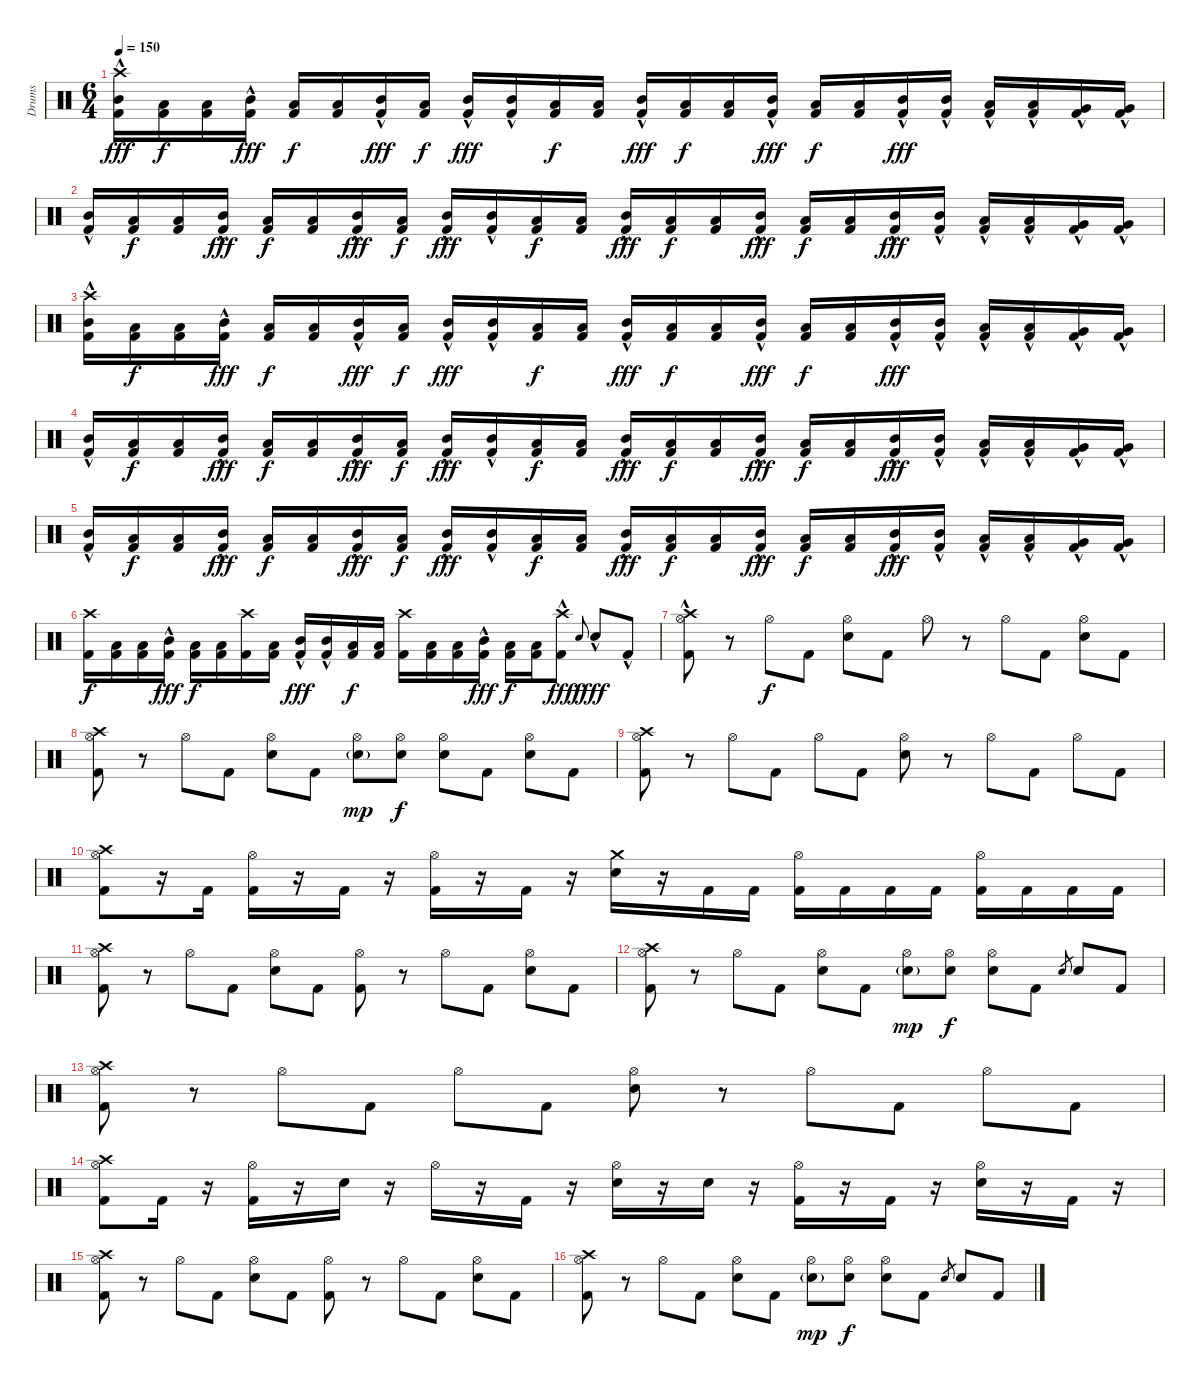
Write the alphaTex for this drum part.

\track ("Drums" "Drums") {instrument percussion}
\staff {score}
\articulation defaults
\ts (6 4)
\tempo 150
\clef neutral
\ks c
("Crash high (hit)" "Mid Tom (hit)"{hac} "Kick (hit) 2").16{dy fff} ("Low Floor Tom (hit)" "Kick (hit) 2").16{dy f} ("Low Floor Tom (hit)" "Kick (hit) 2").16 ("Mid Tom (hit)"{hac} "Kick (hit) 2").16{dy fff} ("Low Floor Tom (hit)" "Kick (hit) 2").16{dy f} ("Low Floor Tom (hit)" "Kick (hit) 2").16 ("Mid Tom (hit)"{hac} "Kick (hit) 2").16{dy fff} ("Low Floor Tom (hit)" "Kick (hit) 2").16{dy f} ("Mid Tom (hit)"{hac} "Kick (hit) 2").16{dy fff} ("Mid Tom (hit)"{hac} "Kick (hit) 2").16 ("Low Floor Tom (hit)" "Kick (hit) 2").16{dy f} ("Low Floor Tom (hit)" "Kick (hit) 2").16 ("Mid Tom (hit)"{hac} "Kick (hit) 2").16{dy fff} ("Low Floor Tom (hit)" "Kick (hit) 2").16{dy f} ("Low Floor Tom (hit)" "Kick (hit) 2").16 ("Mid Tom (hit)"{hac} "Kick (hit) 2").16{dy fff} ("Low Floor Tom (hit)" "Kick (hit) 2").16{dy f} ("Low Floor Tom (hit)" "Kick (hit) 2").16 ("Mid Tom (hit)"{hac} "Kick (hit) 2").16{dy fff} ("Mid Tom (hit)"{hac} "Kick (hit) 2").16 ("Low Tom (hit)"{hac} "Kick (hit) 2").16 ("Low Tom (hit)"{hac} "Kick (hit) 2").16 ("Very Low Tom (hit)"{hac} "Kick (hit) 2").16 ("Very Low Tom (hit)"{hac} "Kick (hit) 2").16 |
("Mid Tom (hit)"{hac} "Kick (hit) 2").16 ("Low Floor Tom (hit)" "Kick (hit) 2").16{dy f} ("Low Floor Tom (hit)" "Kick (hit) 2").16 ("Mid Tom (hit)"{hac} "Kick (hit) 2").16{dy fff} ("Low Floor Tom (hit)" "Kick (hit) 2").16{dy f} ("Low Floor Tom (hit)" "Kick (hit) 2").16 ("Mid Tom (hit)"{hac} "Kick (hit) 2").16{dy fff} ("Low Floor Tom (hit)" "Kick (hit) 2").16{dy f} ("Mid Tom (hit)"{hac} "Kick (hit) 2").16{dy fff} ("Mid Tom (hit)"{hac} "Kick (hit) 2").16 ("Low Floor Tom (hit)" "Kick (hit) 2").16{dy f} ("Low Floor Tom (hit)" "Kick (hit) 2").16 ("Mid Tom (hit)"{hac} "Kick (hit) 2").16{dy fff} ("Low Floor Tom (hit)" "Kick (hit) 2").16{dy f} ("Low Floor Tom (hit)" "Kick (hit) 2").16 ("Mid Tom (hit)"{hac} "Kick (hit) 2").16{dy fff} ("Low Floor Tom (hit)" "Kick (hit) 2").16{dy f} ("Low Floor Tom (hit)" "Kick (hit) 2").16 ("Mid Tom (hit)"{hac} "Kick (hit) 2").16{dy fff} ("Mid Tom (hit)"{hac} "Kick (hit) 2").16 ("Low Tom (hit)"{hac} "Kick (hit) 2").16 ("Low Tom (hit)"{hac} "Kick (hit) 2").16 ("Very Low Tom (hit)"{hac} "Kick (hit) 2").16 ("Very Low Tom (hit)"{hac} "Kick (hit) 2").16 |
("Crash high (hit)" "Mid Tom (hit)"{hac} "Kick (hit) 2").16 ("Low Floor Tom (hit)" "Kick (hit) 2").16{dy f} ("Low Floor Tom (hit)" "Kick (hit) 2").16 ("Mid Tom (hit)"{hac} "Kick (hit) 2").16{dy fff} ("Low Floor Tom (hit)" "Kick (hit) 2").16{dy f} ("Low Floor Tom (hit)" "Kick (hit) 2").16 ("Mid Tom (hit)"{hac} "Kick (hit) 2").16{dy fff} ("Low Floor Tom (hit)" "Kick (hit) 2").16{dy f} ("Mid Tom (hit)"{hac} "Kick (hit) 2").16{dy fff} ("Mid Tom (hit)"{hac} "Kick (hit) 2").16 ("Low Floor Tom (hit)" "Kick (hit) 2").16{dy f} ("Low Floor Tom (hit)" "Kick (hit) 2").16 ("Mid Tom (hit)"{hac} "Kick (hit) 2").16{dy fff} ("Low Floor Tom (hit)" "Kick (hit) 2").16{dy f} ("Low Floor Tom (hit)" "Kick (hit) 2").16 ("Mid Tom (hit)"{hac} "Kick (hit) 2").16{dy fff} ("Low Floor Tom (hit)" "Kick (hit) 2").16{dy f} ("Low Floor Tom (hit)" "Kick (hit) 2").16 ("Mid Tom (hit)"{hac} "Kick (hit) 2").16{dy fff} ("Mid Tom (hit)"{hac} "Kick (hit) 2").16 ("Low Tom (hit)"{hac} "Kick (hit) 2").16 ("Low Tom (hit)"{hac} "Kick (hit) 2").16 ("Very Low Tom (hit)"{hac} "Kick (hit) 2").16 ("Very Low Tom (hit)"{hac} "Kick (hit) 2").16 |
("Mid Tom (hit)"{hac} "Kick (hit) 2").16 ("Low Floor Tom (hit)" "Kick (hit) 2").16{dy f} ("Low Floor Tom (hit)" "Kick (hit) 2").16 ("Mid Tom (hit)"{hac} "Kick (hit) 2").16{dy fff} ("Low Floor Tom (hit)" "Kick (hit) 2").16{dy f} ("Low Floor Tom (hit)" "Kick (hit) 2").16 ("Mid Tom (hit)"{hac} "Kick (hit) 2").16{dy fff} ("Low Floor Tom (hit)" "Kick (hit) 2").16{dy f} ("Mid Tom (hit)"{hac} "Kick (hit) 2").16{dy fff} ("Mid Tom (hit)"{hac} "Kick (hit) 2").16 ("Low Floor Tom (hit)" "Kick (hit) 2").16{dy f} ("Low Floor Tom (hit)" "Kick (hit) 2").16 ("Mid Tom (hit)"{hac} "Kick (hit) 2").16{dy fff} ("Low Floor Tom (hit)" "Kick (hit) 2").16{dy f} ("Low Floor Tom (hit)" "Kick (hit) 2").16 ("Mid Tom (hit)"{hac} "Kick (hit) 2").16{dy fff} ("Low Floor Tom (hit)" "Kick (hit) 2").16{dy f} ("Low Floor Tom (hit)" "Kick (hit) 2").16 ("Mid Tom (hit)"{hac} "Kick (hit) 2").16{dy fff} ("Mid Tom (hit)"{hac} "Kick (hit) 2").16 ("Low Tom (hit)"{hac} "Kick (hit) 2").16 ("Low Tom (hit)"{hac} "Kick (hit) 2").16 ("Very Low Tom (hit)"{hac} "Kick (hit) 2").16 ("Very Low Tom (hit)"{hac} "Kick (hit) 2").16 |
("Mid Tom (hit)"{hac} "Kick (hit) 2").16 ("Low Floor Tom (hit)" "Kick (hit) 2").16{dy f} ("Low Floor Tom (hit)" "Kick (hit) 2").16 ("Mid Tom (hit)"{hac} "Kick (hit) 2").16{dy fff} ("Low Floor Tom (hit)" "Kick (hit) 2").16{dy f} ("Low Floor Tom (hit)" "Kick (hit) 2").16 ("Mid Tom (hit)"{hac} "Kick (hit) 2").16{dy fff} ("Low Floor Tom (hit)" "Kick (hit) 2").16{dy f} ("Mid Tom (hit)"{hac} "Kick (hit) 2").16{dy fff} ("Mid Tom (hit)"{hac} "Kick (hit) 2").16 ("Low Floor Tom (hit)" "Kick (hit) 2").16{dy f} ("Low Floor Tom (hit)" "Kick (hit) 2").16 ("Mid Tom (hit)"{hac} "Kick (hit) 2").16{dy fff} ("Low Floor Tom (hit)" "Kick (hit) 2").16{dy f} ("Low Floor Tom (hit)" "Kick (hit) 2").16 ("Mid Tom (hit)"{hac} "Kick (hit) 2").16{dy fff} ("Low Floor Tom (hit)" "Kick (hit) 2").16{dy f} ("Low Floor Tom (hit)" "Kick (hit) 2").16 ("Mid Tom (hit)"{hac} "Kick (hit) 2").16{dy fff} ("Mid Tom (hit)"{hac} "Kick (hit) 2").16 ("Low Tom (hit)"{hac} "Kick (hit) 2").16 ("Low Tom (hit)"{hac} "Kick (hit) 2").16 ("Very Low Tom (hit)"{hac} "Kick (hit) 2").16 ("Very Low Tom (hit)"{hac} "Kick (hit) 2").16 |
("Crash high (hit)" "Kick (hit) 2").16{dy f} ("Low Floor Tom (hit)" "Kick (hit) 2").16 ("Low Floor Tom (hit)" "Kick (hit) 2").16 ("Mid Tom (hit)"{hac} "Kick (hit) 2").16{dy fff} ("Low Floor Tom (hit)" "Kick (hit) 2").16{dy f} ("Low Floor Tom (hit)" "Kick (hit) 2").16 ("Crash high (hit)" "Kick (hit) 2").16 ("Low Floor Tom (hit)" "Kick (hit) 2").16 ("Mid Tom (hit)"{hac} "Kick (hit) 2").16{dy fff} ("Mid Tom (hit)"{hac} "Kick (hit) 2").16 ("Low Floor Tom (hit)" "Kick (hit) 2").16{dy f} ("Low Floor Tom (hit)" "Kick (hit) 2").16 ("Crash high (hit)" "Kick (hit) 2").16 ("Low Floor Tom (hit)" "Kick (hit) 2").16 ("Low Floor Tom (hit)" "Kick (hit) 2").16 ("Mid Tom (hit)"{hac} "Kick (hit) 2").16{dy fff} ("Low Floor Tom (hit)" "Kick (hit) 2").16{dy f} ("Low Floor Tom (hit)" "Kick (hit) 2").16 ("Crash high (hit)" "Kick (hit) 2"{hac}).8{dy fff} "Snare (hit) 2".8{gr onbeat dy f} "Snare (hit) 2"{hac}.8{dy fff} "Kick (hit) 2"{hac}.8 |
("Crash high (hit)"{hac} "Hi-Hat (open)" "Kick (hit) 2"{hac}).8 r.8 "Hi-Hat (open)".8{dy f} "Kick (hit) 2".8 ("Hi-Hat (open)" "Snare (hit) 2").8 "Kick (hit) 2".8 "Hi-Hat (open)".8 r.8 "Hi-Hat (open)".8 "Kick (hit) 2".8 ("Hi-Hat (open)" "Snare (hit) 2").8 "Kick (hit) 2".8 |
("Crash high (hit)" "Hi-Hat (open)" "Kick (hit) 2").8 r.8 "Hi-Hat (open)".8 "Kick (hit) 2".8 ("Hi-Hat (open)" "Snare (hit) 2").8 "Kick (hit) 2".8 ("Hi-Hat (open)" "Snare (hit) 2"{g}).8{dy mp} ("Hi-Hat (open)" "Snare (hit) 2").8{dy f} ("Hi-Hat (open)" "Snare (hit) 2").8 "Kick (hit) 2".8 ("Hi-Hat (open)" "Snare (hit) 2").8 "Kick (hit) 2".8 |
("Crash high (hit)" "Hi-Hat (open)" "Kick (hit) 2").8 r.8 "Hi-Hat (open)".8 "Kick (hit) 2".8 "Hi-Hat (open)".8 "Kick (hit) 2".8 ("Hi-Hat (open)" "Snare (hit) 2").8 r.8 "Hi-Hat (open)".8 "Kick (hit) 2".8 "Hi-Hat (open)".8 "Kick (hit) 2".8 |
("Crash high (hit)" "Hi-Hat (open)" "Kick (hit) 2").8 r.16 "Kick (hit) 2".16 ("Hi-Hat (open)" "Kick (hit) 2").16 r.16 "Kick (hit) 2".16 r.16 ("Hi-Hat (open)" "Kick (hit) 2").16 r.16 "Kick (hit) 2".16 r.16 ("Crash medium (hit)" "Snare (hit) 2").16 r.16 "Kick (hit) 2".16 "Kick (hit) 2".16 ("Hi-Hat (open)" "Kick (hit) 2").16 "Kick (hit) 2".16 "Kick (hit) 2".16 "Kick (hit) 2".16 ("Hi-Hat (open)" "Kick (hit) 2").16 "Kick (hit) 2".16 "Kick (hit) 2".16 "Kick (hit) 2".16 |
("Crash high (hit)" "Hi-Hat (open)" "Kick (hit) 2").8 r.8 "Hi-Hat (open)".8 "Kick (hit) 2".8 ("Hi-Hat (open)" "Snare (hit) 2").8 "Kick (hit) 2".8 ("Hi-Hat (open)" "Kick (hit) 2").8 r.8 "Hi-Hat (open)".8 "Kick (hit) 2".8 ("Hi-Hat (open)" "Snare (hit) 2").8 "Kick (hit) 2".8 |
("Crash high (hit)" "Hi-Hat (open)" "Kick (hit) 2").8 r.8 "Hi-Hat (open)".8 "Kick (hit) 2".8 ("Hi-Hat (open)" "Snare (hit) 2").8 "Kick (hit) 2".8 ("Hi-Hat (open)" "Snare (hit) 2"{g}).8{dy mp} ("Hi-Hat (open)" "Snare (hit) 2").8{dy f} ("Hi-Hat (open)" "Snare (hit) 2").8 "Kick (hit) 2".8 "Snare (hit) 2".8{gr} "Snare (hit) 2".8 "Kick (hit) 2".8 |
("Crash high (hit)" "Hi-Hat (open)" "Kick (hit) 2").8 r.8 "Hi-Hat (open)".8 "Kick (hit) 2".8 "Hi-Hat (open)".8 "Kick (hit) 2".8 ("Hi-Hat (open)" "Snare (hit) 2").8 r.8 "Hi-Hat (open)".8 "Kick (hit) 2".8 "Hi-Hat (open)".8 "Kick (hit) 2".8 |
("Crash high (hit)" "Hi-Hat (open)" "Kick (hit) 2").8 "Kick (hit) 2".16 r.16 ("Hi-Hat (open)" "Kick (hit) 2").16 r.16 "Snare (hit) 2".16 r.16 "Hi-Hat (open)".16 r.16 "Kick (hit) 2".16 r.16 ("Hi-Hat (open)" "Snare (hit) 2").16 r.16 "Snare (hit) 2".16 r.16 ("Hi-Hat (open)" "Kick (hit) 2").16 r.16 "Kick (hit) 2".16 r.16 ("Hi-Hat (open)" "Snare (hit) 2").16 r.16 "Kick (hit) 2".16 r.16 |
("Crash high (hit)" "Hi-Hat (open)" "Kick (hit) 2").8 r.8 "Hi-Hat (open)".8 "Kick (hit) 2".8 ("Hi-Hat (open)" "Snare (hit) 2").8 "Kick (hit) 2".8 ("Hi-Hat (open)" "Kick (hit) 2").8 r.8 "Hi-Hat (open)".8 "Kick (hit) 2".8 ("Hi-Hat (open)" "Snare (hit) 2").8 "Kick (hit) 2".8 |
("Crash high (hit)" "Hi-Hat (open)" "Kick (hit) 2").8 r.8 "Hi-Hat (open)".8 "Kick (hit) 2".8 ("Hi-Hat (open)" "Snare (hit) 2").8 "Kick (hit) 2".8 ("Hi-Hat (open)" "Snare (hit) 2"{g}).8{dy mp} ("Hi-Hat (open)" "Snare (hit) 2").8{dy f} ("Hi-Hat (open)" "Snare (hit) 2").8 "Kick (hit) 2".8 "Snare (hit) 2".8{gr} "Snare (hit) 2".8 "Kick (hit) 2".8
